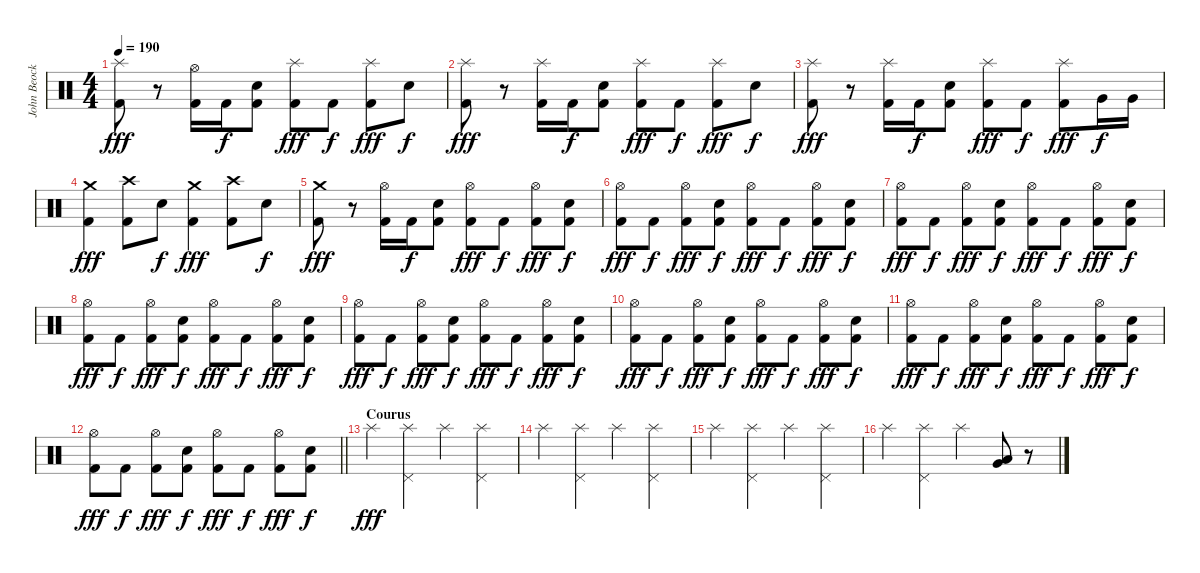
\track ("John Beocklin (Drums)" "John Beock") {instrument percussion}
\staff {score}
\articulation defaults
\ts (4 4)
\tempo 190
\clef neutral
\ks c
("Splash (hit)" "Kick (hit) 2").8{dy fff} r.8 ("Hi-Hat (open)" "Kick (hit) 2").16 "Kick (hit) 2".16{dy f} ("Snare (hit) 2" "Kick (hit) 2").8 ("Splash (hit)" "Kick (hit) 2").8{dy fff} "Kick (hit) 2".8{dy f} ("Splash (hit)" "Kick (hit) 2").8{dy fff} "Snare (hit) 2".8{dy f} |
("Splash (hit)" "Kick (hit) 2").8{dy fff} r.8 ("Splash (hit)" "Kick (hit) 2").16 "Kick (hit) 2".16{dy f} ("Snare (hit) 2" "Kick (hit) 2").8 ("Splash (hit)" "Kick (hit) 2").8{dy fff} "Kick (hit) 2".8{dy f} ("Splash (hit)" "Kick (hit) 2").8{dy fff} "Snare (hit) 2".8{dy f} |
("Splash (hit)" "Kick (hit) 2").8{dy fff} r.8 ("Splash (hit)" "Kick (hit) 2").16 "Kick (hit) 2".16{dy f} ("Snare (hit) 2" "Kick (hit) 2").8 ("Splash (hit)" "Kick (hit) 2").8{dy fff} "Kick (hit) 2".8{dy f} ("Splash (hit)" "Kick (hit) 2").8{dy fff} "Very Low Tom (hit)".16{dy f} "Very Low Tom (hit)".16 |
("Crash medium (hit)" "Kick (hit) 2").4{dy fff} ("Crash high (hit)" "Kick (hit) 2").8 "Snare (hit) 2".8{dy f} ("Crash medium (hit)" "Kick (hit) 2").4{dy fff} ("Crash high (hit)" "Kick (hit) 2").8 "Snare (hit) 2".8{dy f} |
("Crash medium (hit)" "Kick (hit) 2").8{dy fff} r.8 ("Hi-Hat (open)" "Kick (hit) 2").16 "Kick (hit) 2".16{dy f} ("Snare (hit) 2" "Kick (hit) 2").8 ("Hi-Hat (open)" "Kick (hit) 2").8{dy fff} "Kick (hit) 2".8{dy f} ("Hi-Hat (open)" "Kick (hit) 2").8{dy fff} ("Snare (hit) 2" "Kick (hit) 2").8{dy f} |
("Hi-Hat (open)" "Kick (hit) 2").8{dy fff} "Kick (hit) 2".8{dy f} ("Hi-Hat (open)" "Kick (hit) 2").8{dy fff} ("Snare (hit) 2" "Kick (hit) 2").8{dy f} ("Hi-Hat (open)" "Kick (hit) 2").8{dy fff} "Kick (hit) 2".8{dy f} ("Hi-Hat (open)" "Kick (hit) 2").8{dy fff} ("Snare (hit) 2" "Kick (hit) 2").8{dy f} |
("Hi-Hat (open)" "Kick (hit) 2").8{dy fff} "Kick (hit) 2".8{dy f} ("Hi-Hat (open)" "Kick (hit) 2").8{dy fff} ("Snare (hit) 2" "Kick (hit) 2").8{dy f} ("Hi-Hat (open)" "Kick (hit) 2").8{dy fff} "Kick (hit) 2".8{dy f} ("Hi-Hat (open)" "Kick (hit) 2").8{dy fff} ("Snare (hit) 2" "Kick (hit) 2").8{dy f} |
("Hi-Hat (open)" "Kick (hit) 2").8{dy fff} "Kick (hit) 2".8{dy f} ("Hi-Hat (open)" "Kick (hit) 2").8{dy fff} ("Snare (hit) 2" "Kick (hit) 2").8{dy f} ("Hi-Hat (open)" "Kick (hit) 2").8{dy fff} "Kick (hit) 2".8{dy f} ("Hi-Hat (open)" "Kick (hit) 2").8{dy fff} ("Snare (hit) 2" "Kick (hit) 2").8{dy f} |
("Hi-Hat (open)" "Kick (hit) 2").8{dy fff} "Kick (hit) 2".8{dy f} ("Hi-Hat (open)" "Kick (hit) 2").8{dy fff} ("Snare (hit) 2" "Kick (hit) 2").8{dy f} ("Hi-Hat (open)" "Kick (hit) 2").8{dy fff} "Kick (hit) 2".8{dy f} ("Hi-Hat (open)" "Kick (hit) 2").8{dy fff} ("Snare (hit) 2" "Kick (hit) 2").8{dy f} |
("Hi-Hat (open)" "Kick (hit) 2").8{dy fff} "Kick (hit) 2".8{dy f} ("Hi-Hat (open)" "Kick (hit) 2").8{dy fff} ("Snare (hit) 2" "Kick (hit) 2").8{dy f} ("Hi-Hat (open)" "Kick (hit) 2").8{dy fff} "Kick (hit) 2".8{dy f} ("Hi-Hat (open)" "Kick (hit) 2").8{dy fff} ("Snare (hit) 2" "Kick (hit) 2").8{dy f} |
("Hi-Hat (open)" "Kick (hit) 2").8{dy fff} "Kick (hit) 2".8{dy f} ("Hi-Hat (open)" "Kick (hit) 2").8{dy fff} ("Snare (hit) 2" "Kick (hit) 2").8{dy f} ("Hi-Hat (open)" "Kick (hit) 2").8{dy fff} "Kick (hit) 2".8{dy f} ("Hi-Hat (open)" "Kick (hit) 2").8{dy fff} ("Snare (hit) 2" "Kick (hit) 2").8{dy f} |
\barLineRight lightlight
("Hi-Hat (open)" "Kick (hit) 2").8{dy fff} "Kick (hit) 2".8{dy f} ("Hi-Hat (open)" "Kick (hit) 2").8{dy fff} ("Snare (hit) 2" "Kick (hit) 2").8{dy f} ("Hi-Hat (open)" "Kick (hit) 2").8{dy fff} "Kick (hit) 2".8{dy f} ("Hi-Hat (open)" "Kick (hit) 2").8{dy fff} ("Snare (hit) 2" "Kick (hit) 2").8{dy f} |
\section ("" "Courus")
"Splash (hit)".4{dy fff} ("Splash (hit)" "Pedal Hi-Hat (hit)").4 "Splash (hit)".4 ("Splash (hit)" "Pedal Hi-Hat (hit)").4 |
"Splash (hit)".4 ("Splash (hit)" "Pedal Hi-Hat (hit)").4 "Splash (hit)".4 ("Splash (hit)" "Pedal Hi-Hat (hit)").4 |
"Splash (hit)".4 ("Splash (hit)" "Pedal Hi-Hat (hit)").4 "Splash (hit)".4 ("Splash (hit)" "Pedal Hi-Hat (hit)").4 |
"Splash (hit)".4 ("Splash (hit)" "Pedal Hi-Hat (hit)").4 "Splash (hit)".4 ("Very Low Tom (hit)" "Low Floor Tom (hit)").8 r.8
